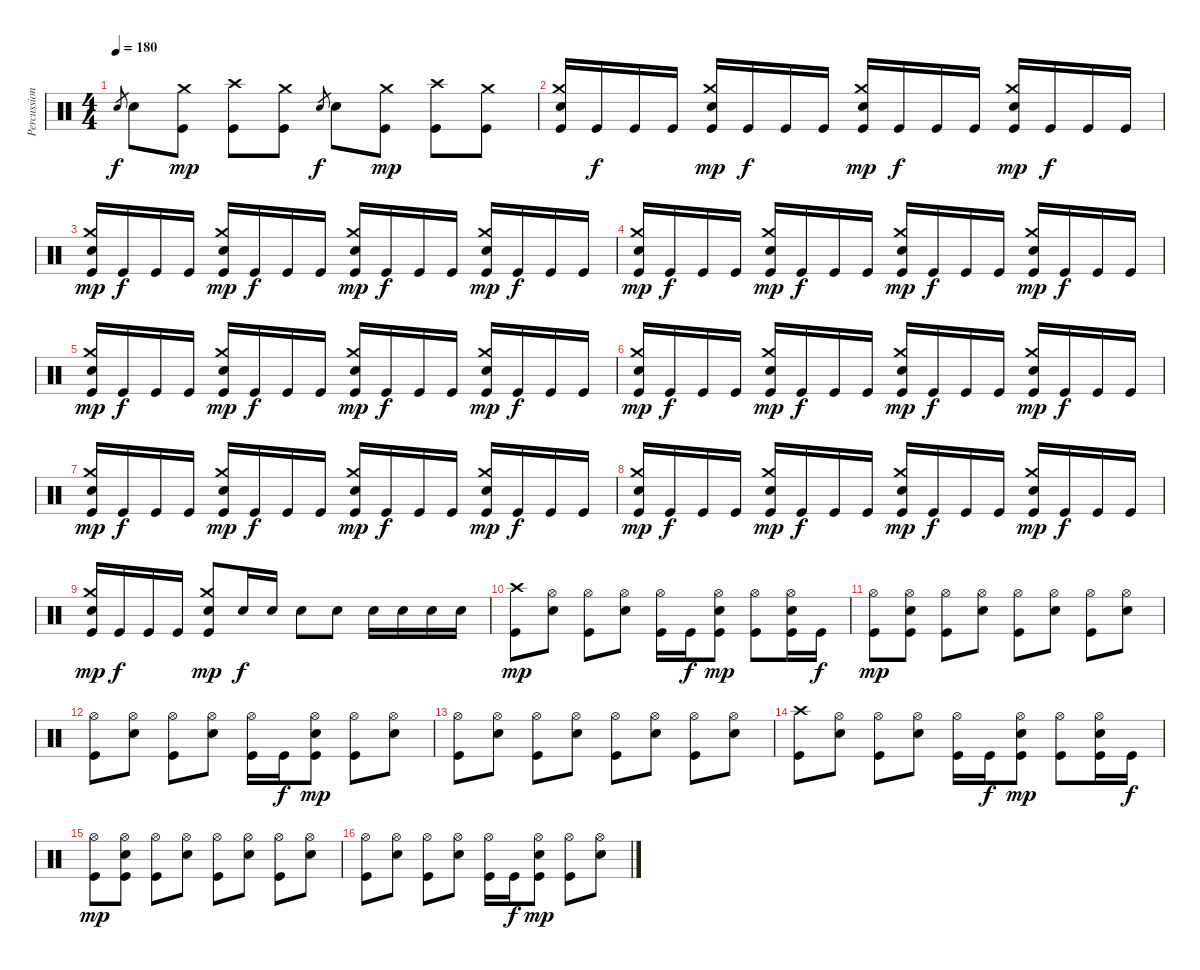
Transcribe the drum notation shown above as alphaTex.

\track ("Percussion" "Percussion") {instrument percussion}
\staff {score}
\articulation defaults
\ts (4 4)
\tempo 180
\clef neutral
\ks c "Electric Snare (hit)".8{gr dy f} "Electric Snare (hit)".8
("Crash medium (hit)" "Kick (hit)").8{dy mp} ("Crash high (hit)" "Kick (hit)").8 ("Crash medium (hit)" "Kick (hit)").8 "Electric Snare (hit)".8{gr dy f} "Electric Snare (hit)".8 ("Crash medium (hit)" "Kick (hit)").8{dy mp} ("Crash high (hit)" "Kick (hit)").8 ("Crash medium (hit)" "Kick (hit)").8 |
("Crash medium (hit)" "Electric Snare (hit)" "Kick (hit)").16 "Kick (hit)".16{dy f} "Kick (hit)".16 "Kick (hit)".16 ("Crash medium (hit)" "Electric Snare (hit)" "Kick (hit)").16{dy mp} "Kick (hit)".16{dy f} "Kick (hit)".16 "Kick (hit)".16 ("Crash medium (hit)" "Electric Snare (hit)" "Kick (hit)").16{dy mp} "Kick (hit)".16{dy f} "Kick (hit)".16 "Kick (hit)".16 ("Crash medium (hit)" "Electric Snare (hit)" "Kick (hit)").16{dy mp} "Kick (hit)".16{dy f} "Kick (hit)".16 "Kick (hit)".16 |
("Crash medium (hit)" "Electric Snare (hit)" "Kick (hit)").16{dy mp} "Kick (hit)".16{dy f} "Kick (hit)".16 "Kick (hit)".16 ("Crash medium (hit)" "Electric Snare (hit)" "Kick (hit)").16{dy mp} "Kick (hit)".16{dy f} "Kick (hit)".16 "Kick (hit)".16 ("Crash medium (hit)" "Electric Snare (hit)" "Kick (hit)").16{dy mp} "Kick (hit)".16{dy f} "Kick (hit)".16 "Kick (hit)".16 ("Crash medium (hit)" "Electric Snare (hit)" "Kick (hit)").16{dy mp} "Kick (hit)".16{dy f} "Kick (hit)".16 "Kick (hit)".16 |
("Crash medium (hit)" "Electric Snare (hit)" "Kick (hit)").16{dy mp} "Kick (hit)".16{dy f} "Kick (hit)".16 "Kick (hit)".16 ("Crash medium (hit)" "Electric Snare (hit)" "Kick (hit)").16{dy mp} "Kick (hit)".16{dy f} "Kick (hit)".16 "Kick (hit)".16 ("Crash medium (hit)" "Electric Snare (hit)" "Kick (hit)").16{dy mp} "Kick (hit)".16{dy f} "Kick (hit)".16 "Kick (hit)".16 ("Crash medium (hit)" "Electric Snare (hit)" "Kick (hit)").16{dy mp} "Kick (hit)".16{dy f} "Kick (hit)".16 "Kick (hit)".16 |
("Crash medium (hit)" "Electric Snare (hit)" "Kick (hit)").16{dy mp} "Kick (hit)".16{dy f} "Kick (hit)".16 "Kick (hit)".16 ("Crash medium (hit)" "Electric Snare (hit)" "Kick (hit)").16{dy mp} "Kick (hit)".16{dy f} "Kick (hit)".16 "Kick (hit)".16 ("Crash medium (hit)" "Electric Snare (hit)" "Kick (hit)").16{dy mp} "Kick (hit)".16{dy f} "Kick (hit)".16 "Kick (hit)".16 ("Crash medium (hit)" "Electric Snare (hit)" "Kick (hit)").16{dy mp} "Kick (hit)".16{dy f} "Kick (hit)".16 "Kick (hit)".16 |
("Crash medium (hit)" "Electric Snare (hit)" "Kick (hit)").16{dy mp} "Kick (hit)".16{dy f} "Kick (hit)".16 "Kick (hit)".16 ("Crash medium (hit)" "Electric Snare (hit)" "Kick (hit)").16{dy mp} "Kick (hit)".16{dy f} "Kick (hit)".16 "Kick (hit)".16 ("Crash medium (hit)" "Electric Snare (hit)" "Kick (hit)").16{dy mp} "Kick (hit)".16{dy f} "Kick (hit)".16 "Kick (hit)".16 ("Crash medium (hit)" "Electric Snare (hit)" "Kick (hit)").16{dy mp} "Kick (hit)".16{dy f} "Kick (hit)".16 "Kick (hit)".16 |
("Crash medium (hit)" "Electric Snare (hit)" "Kick (hit)").16{dy mp} "Kick (hit)".16{dy f} "Kick (hit)".16 "Kick (hit)".16 ("Crash medium (hit)" "Electric Snare (hit)" "Kick (hit)").16{dy mp} "Kick (hit)".16{dy f} "Kick (hit)".16 "Kick (hit)".16 ("Crash medium (hit)" "Electric Snare (hit)" "Kick (hit)").16{dy mp} "Kick (hit)".16{dy f} "Kick (hit)".16 "Kick (hit)".16 ("Crash medium (hit)" "Electric Snare (hit)" "Kick (hit)").16{dy mp} "Kick (hit)".16{dy f} "Kick (hit)".16 "Kick (hit)".16 |
("Crash medium (hit)" "Electric Snare (hit)" "Kick (hit)").16{dy mp} "Kick (hit)".16{dy f} "Kick (hit)".16 "Kick (hit)".16 ("Crash medium (hit)" "Electric Snare (hit)" "Kick (hit)").16{dy mp} "Kick (hit)".16{dy f} "Kick (hit)".16 "Kick (hit)".16 ("Crash medium (hit)" "Electric Snare (hit)" "Kick (hit)").16{dy mp} "Kick (hit)".16{dy f} "Kick (hit)".16 "Kick (hit)".16 ("Crash medium (hit)" "Electric Snare (hit)" "Kick (hit)").16{dy mp} "Kick (hit)".16{dy f} "Kick (hit)".16 "Kick (hit)".16 |
("Crash medium (hit)" "Electric Snare (hit)" "Kick (hit)").16{dy mp} "Kick (hit)".16{dy f} "Kick (hit)".16 "Kick (hit)".16 ("Crash medium (hit)" "Electric Snare (hit)" "Kick (hit)").8{dy mp} "Electric Snare (hit)".16{dy f} "Electric Snare (hit)".16 "Electric Snare (hit)".8 "Electric Snare (hit)".8 "Electric Snare (hit)".16 "Electric Snare (hit)".16 "Electric Snare (hit)".16 "Electric Snare (hit)".16 |
("Crash high (hit)" "Kick (hit)").8{dy mp} ("Hi-Hat (open)" "Electric Snare (hit)").8 ("Hi-Hat (open)" "Kick (hit)").8 ("Hi-Hat (open)" "Electric Snare (hit)").8 ("Hi-Hat (open)" "Kick (hit)").16 "Kick (hit)".16{dy f} ("Hi-Hat (open)" "Electric Snare (hit)" "Kick (hit)").8{dy mp} ("Hi-Hat (open)" "Kick (hit)").8 ("Hi-Hat (open)" "Electric Snare (hit)" "Kick (hit)").16 "Kick (hit)".16{dy f} |
("Hi-Hat (open)" "Kick (hit)").8{dy mp} ("Hi-Hat (open)" "Electric Snare (hit)" "Kick (hit)").8 ("Hi-Hat (open)" "Kick (hit)").8 ("Hi-Hat (open)" "Electric Snare (hit)").8 ("Hi-Hat (open)" "Kick (hit)").8 ("Hi-Hat (open)" "Electric Snare (hit)").8 ("Hi-Hat (open)" "Kick (hit)").8 ("Hi-Hat (open)" "Electric Snare (hit)").8 |
("Hi-Hat (open)" "Kick (hit)").8 ("Hi-Hat (open)" "Electric Snare (hit)").8 ("Hi-Hat (open)" "Kick (hit)").8 ("Hi-Hat (open)" "Electric Snare (hit)").8 ("Hi-Hat (open)" "Kick (hit)").16 "Kick (hit)".16{dy f} ("Hi-Hat (open)" "Electric Snare (hit)" "Kick (hit)").8{dy mp} ("Hi-Hat (open)" "Kick (hit)").8 ("Hi-Hat (open)" "Electric Snare (hit)").8 |
("Hi-Hat (open)" "Kick (hit)").8 ("Hi-Hat (open)" "Electric Snare (hit)").8 ("Hi-Hat (open)" "Kick (hit)").8 ("Hi-Hat (open)" "Electric Snare (hit)").8 ("Hi-Hat (open)" "Kick (hit)").8 ("Hi-Hat (open)" "Electric Snare (hit)").8 ("Hi-Hat (open)" "Kick (hit)").8 ("Hi-Hat (open)" "Electric Snare (hit)").8 |
("Crash high (hit)" "Kick (hit)").8 ("Hi-Hat (open)" "Electric Snare (hit)").8 ("Hi-Hat (open)" "Kick (hit)").8 ("Hi-Hat (open)" "Electric Snare (hit)").8 ("Hi-Hat (open)" "Kick (hit)").16 "Kick (hit)".16{dy f} ("Hi-Hat (open)" "Electric Snare (hit)" "Kick (hit)").8{dy mp} ("Hi-Hat (open)" "Kick (hit)").8 ("Hi-Hat (open)" "Electric Snare (hit)" "Kick (hit)").16 "Kick (hit)".16{dy f} |
("Hi-Hat (open)" "Kick (hit)").8{dy mp} ("Hi-Hat (open)" "Electric Snare (hit)" "Kick (hit)").8 ("Hi-Hat (open)" "Kick (hit)").8 ("Hi-Hat (open)" "Electric Snare (hit)").8 ("Hi-Hat (open)" "Kick (hit)").8 ("Hi-Hat (open)" "Electric Snare (hit)").8 ("Hi-Hat (open)" "Kick (hit)").8 ("Hi-Hat (open)" "Electric Snare (hit)").8 |
("Hi-Hat (open)" "Kick (hit)").8 ("Hi-Hat (open)" "Electric Snare (hit)").8 ("Hi-Hat (open)" "Kick (hit)").8 ("Hi-Hat (open)" "Electric Snare (hit)").8 ("Hi-Hat (open)" "Kick (hit)").16 "Kick (hit)".16{dy f} ("Hi-Hat (open)" "Electric Snare (hit)" "Kick (hit)").8{dy mp} ("Hi-Hat (open)" "Kick (hit)").8 ("Hi-Hat (open)" "Electric Snare (hit)").8
